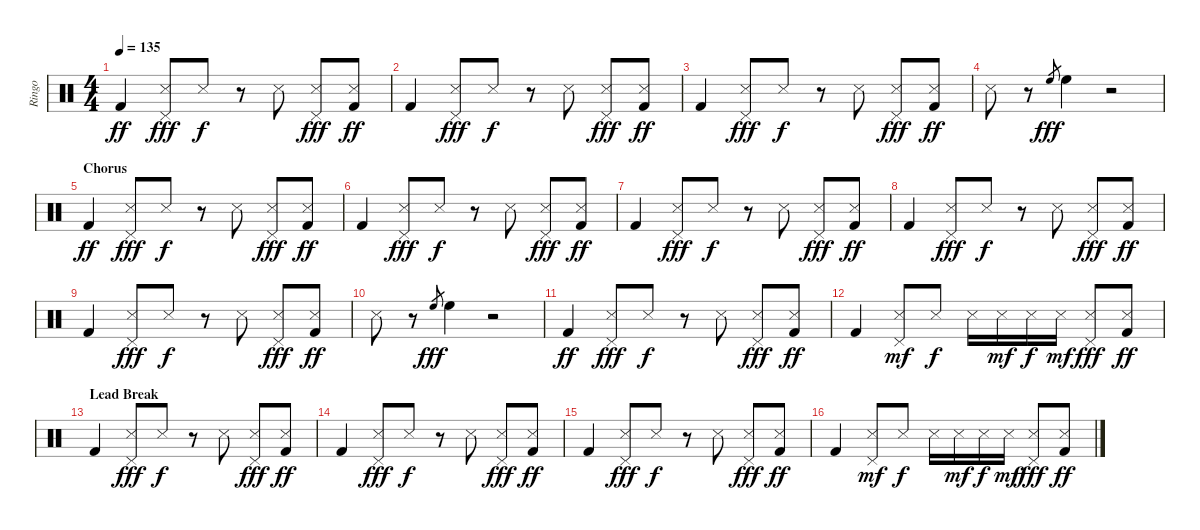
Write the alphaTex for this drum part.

\track ("Ringo" "Ringo") {instrument percussion}
\staff {score}
\articulation defaults
\ts (4 4)
\tempo 135
\clef neutral
\ks c "Kick (hit) 2".4{dy ff}
("Pedal Hi-Hat (hit)" "Snare (side stick) 3").8{dy fff} "Snare (side stick) 3".8{dy f} r.8 "Snare (side stick) 3".8 ("Pedal Hi-Hat (hit)" "Snare (side stick) 3").8{dy fff} ("Snare (side stick) 3" "Kick (hit) 2").8{dy ff} |
"Kick (hit) 2".4 ("Pedal Hi-Hat (hit)" "Snare (side stick) 3").8{dy fff} "Snare (side stick) 3".8{dy f} r.8 "Snare (side stick) 3".8 ("Pedal Hi-Hat (hit)" "Snare (side stick) 3").8{dy fff} ("Snare (side stick) 3" "Kick (hit) 2").8{dy ff} |
"Kick (hit) 2".4 ("Pedal Hi-Hat (hit)" "Snare (side stick) 3").8{dy fff} "Snare (side stick) 3".8{dy f} r.8 "Snare (side stick) 3".8 ("Pedal Hi-Hat (hit)" "Snare (side stick) 3").8{dy fff} ("Snare (side stick) 3" "Kick (hit) 2").8{dy ff} |
"Snare (side stick) 3".8 r.8 "High Floor Tom (hit)".8{gr dy fff} "High Floor Tom (hit)".4 r.2 |
\section ("" "Chorus")
"Kick (hit) 2".4{dy ff} ("Pedal Hi-Hat (hit)" "Snare (side stick) 3").8{dy fff} "Snare (side stick) 3".8{dy f} r.8 "Snare (side stick) 3".8 ("Pedal Hi-Hat (hit)" "Snare (side stick) 3").8{dy fff} ("Snare (side stick) 3" "Kick (hit) 2").8{dy ff} |
"Kick (hit) 2".4 ("Pedal Hi-Hat (hit)" "Snare (side stick) 3").8{dy fff} "Snare (side stick) 3".8{dy f} r.8 "Snare (side stick) 3".8 ("Pedal Hi-Hat (hit)" "Snare (side stick) 3").8{dy fff} ("Snare (side stick) 3" "Kick (hit) 2").8{dy ff} |
"Kick (hit) 2".4 ("Pedal Hi-Hat (hit)" "Snare (side stick) 3").8{dy fff} "Snare (side stick) 3".8{dy f} r.8 "Snare (side stick) 3".8 ("Pedal Hi-Hat (hit)" "Snare (side stick) 3").8{dy fff} ("Snare (side stick) 3" "Kick (hit) 2").8{dy ff} |
"Kick (hit) 2".4 ("Pedal Hi-Hat (hit)" "Snare (side stick) 3").8{dy fff} "Snare (side stick) 3".8{dy f} r.8 "Snare (side stick) 3".8 ("Pedal Hi-Hat (hit)" "Snare (side stick) 3").8{dy fff} ("Snare (side stick) 3" "Kick (hit) 2").8{dy ff} |
"Kick (hit) 2".4 ("Pedal Hi-Hat (hit)" "Snare (side stick) 3").8{dy fff} "Snare (side stick) 3".8{dy f} r.8 "Snare (side stick) 3".8 ("Pedal Hi-Hat (hit)" "Snare (side stick) 3").8{dy fff} ("Snare (side stick) 3" "Kick (hit) 2").8{dy ff} |
"Snare (side stick) 3".8 r.8 "High Floor Tom (hit)".8{gr dy fff} "High Floor Tom (hit)".4 r.2 |
"Kick (hit) 2".4{dy ff} ("Pedal Hi-Hat (hit)" "Snare (side stick) 3").8{dy fff} "Snare (side stick) 3".8{dy f} r.8 "Snare (side stick) 3".8 ("Pedal Hi-Hat (hit)" "Snare (side stick) 3").8{dy fff} ("Snare (side stick) 3" "Kick (hit) 2").8{dy ff} |
"Kick (hit) 2".4 ("Pedal Hi-Hat (hit)" "Snare (side stick) 3").8{dy mf} "Snare (side stick) 3".8{dy f} "Snare (side stick) 3".16 "Snare (side stick) 3".16{dy mf} "Snare (side stick) 3".16{dy f} "Snare (side stick) 3".16{dy mf} ("Pedal Hi-Hat (hit)" "Snare (side stick) 3").8{dy fff} ("Snare (side stick) 3" "Kick (hit) 2").8{dy ff} |
\section ("" "Lead Break")
"Kick (hit) 2".4 ("Pedal Hi-Hat (hit)" "Snare (side stick) 3").8{dy fff} "Snare (side stick) 3".8{dy f} r.8 "Snare (side stick) 3".8 ("Pedal Hi-Hat (hit)" "Snare (side stick) 3").8{dy fff} ("Snare (side stick) 3" "Kick (hit) 2").8{dy ff} |
"Kick (hit) 2".4 ("Pedal Hi-Hat (hit)" "Snare (side stick) 3").8{dy fff} "Snare (side stick) 3".8{dy f} r.8 "Snare (side stick) 3".8 ("Pedal Hi-Hat (hit)" "Snare (side stick) 3").8{dy fff} ("Snare (side stick) 3" "Kick (hit) 2").8{dy ff} |
"Kick (hit) 2".4 ("Pedal Hi-Hat (hit)" "Snare (side stick) 3").8{dy fff} "Snare (side stick) 3".8{dy f} r.8 "Snare (side stick) 3".8 ("Pedal Hi-Hat (hit)" "Snare (side stick) 3").8{dy fff} ("Snare (side stick) 3" "Kick (hit) 2").8{dy ff} |
"Kick (hit) 2".4 ("Pedal Hi-Hat (hit)" "Snare (side stick) 3").8{dy mf} "Snare (side stick) 3".8{dy f} "Snare (side stick) 3".16 "Snare (side stick) 3".16{dy mf} "Snare (side stick) 3".16{dy f} "Snare (side stick) 3".16{dy mf} ("Pedal Hi-Hat (hit)" "Snare (side stick) 3").8{dy fff} ("Snare (side stick) 3" "Kick (hit) 2").8{dy ff}
